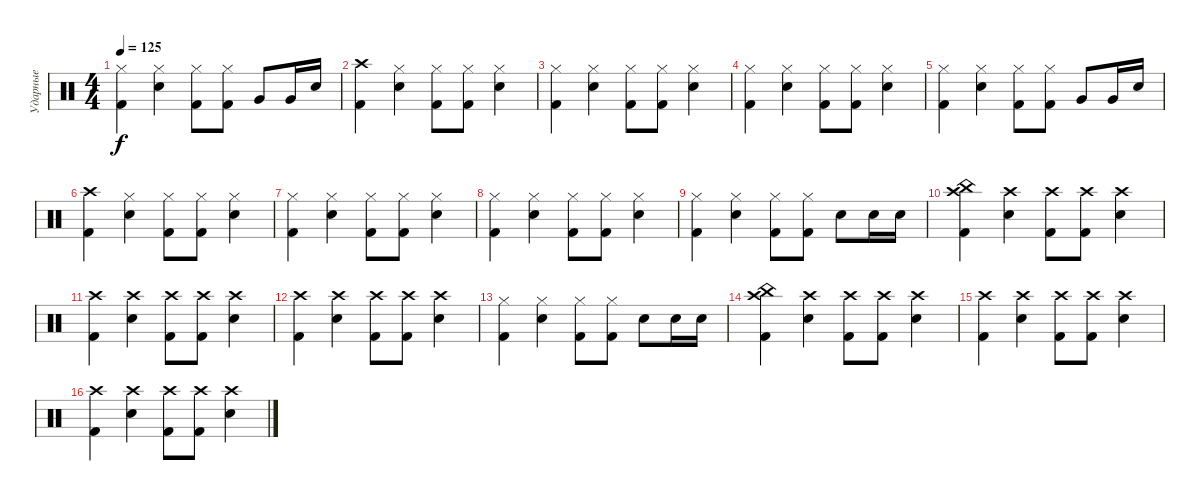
\track ("Ударные" "Ударные") {instrument percussion}
\staff {score}
\articulation defaults
\ts (4 4)
\tempo 125
\clef neutral
\ks c
("Hi-Hat (closed)" "Kick (hit) 2").4{dy f} ("Hi-Hat (closed)" "Snare (hit) 2").4 ("Hi-Hat (closed)" "Kick (hit) 2").8 ("Hi-Hat (closed)" "Kick (hit) 2").8 "Very Low Tom (hit)".8 "Very Low Tom (hit)".16 "Snare (hit) 2".16 |
("Crash high (hit)" "Kick (hit) 2").4 ("Hi-Hat (closed)" "Snare (hit) 2").4 ("Hi-Hat (closed)" "Kick (hit) 2").8 ("Hi-Hat (closed)" "Kick (hit) 2").8 ("Hi-Hat (closed)" "Snare (hit) 2").4 |
("Hi-Hat (closed)" "Kick (hit) 2").4 ("Hi-Hat (closed)" "Snare (hit) 2").4 ("Hi-Hat (closed)" "Kick (hit) 2").8 ("Hi-Hat (closed)" "Kick (hit) 2").8 ("Hi-Hat (closed)" "Snare (hit) 2").4 |
("Hi-Hat (closed)" "Kick (hit) 2").4 ("Hi-Hat (closed)" "Snare (hit) 2").4 ("Hi-Hat (closed)" "Kick (hit) 2").8 ("Hi-Hat (closed)" "Kick (hit) 2").8 ("Hi-Hat (closed)" "Snare (hit) 2").4 |
("Hi-Hat (closed)" "Kick (hit) 2").4 ("Hi-Hat (closed)" "Snare (hit) 2").4 ("Hi-Hat (closed)" "Kick (hit) 2").8 ("Hi-Hat (closed)" "Kick (hit) 2").8 "Very Low Tom (hit)".8 "Very Low Tom (hit)".16 "Snare (hit) 2".16 |
("Crash high (hit)" "Kick (hit) 2").4 ("Hi-Hat (closed)" "Snare (hit) 2").4 ("Hi-Hat (closed)" "Kick (hit) 2").8 ("Hi-Hat (closed)" "Kick (hit) 2").8 ("Hi-Hat (closed)" "Snare (hit) 2").4 |
("Hi-Hat (closed)" "Kick (hit) 2").4 ("Hi-Hat (closed)" "Snare (hit) 2").4 ("Hi-Hat (closed)" "Kick (hit) 2").8 ("Hi-Hat (closed)" "Kick (hit) 2").8 ("Hi-Hat (closed)" "Snare (hit) 2").4 |
("Hi-Hat (closed)" "Kick (hit) 2").4 ("Hi-Hat (closed)" "Snare (hit) 2").4 ("Hi-Hat (closed)" "Kick (hit) 2").8 ("Hi-Hat (closed)" "Kick (hit) 2").8 ("Hi-Hat (closed)" "Snare (hit) 2").4 |
("Hi-Hat (closed)" "Kick (hit) 2").4 ("Hi-Hat (closed)" "Snare (hit) 2").4 ("Hi-Hat (closed)" "Kick (hit) 2").8 ("Hi-Hat (closed)" "Kick (hit) 2").8 "Snare (hit) 2".8 "Snare (hit) 2".16 "Snare (hit) 2".16 |
("China (hit)" "Crash high (hit)" "Kick (hit) 2").4 ("Crash high (hit)" "Snare (hit) 2").4 ("Crash high (hit)" "Kick (hit) 2").8 ("Crash high (hit)" "Kick (hit) 2").8 ("Crash high (hit)" "Snare (hit) 2").4 |
("Crash high (hit)" "Kick (hit) 2").4 ("Crash high (hit)" "Snare (hit) 2").4 ("Crash high (hit)" "Kick (hit) 2").8 ("Crash high (hit)" "Kick (hit) 2").8 ("Crash high (hit)" "Snare (hit) 2").4 |
("Crash high (hit)" "Kick (hit) 2").4 ("Crash high (hit)" "Snare (hit) 2").4 ("Crash high (hit)" "Kick (hit) 2").8 ("Crash high (hit)" "Kick (hit) 2").8 ("Crash high (hit)" "Snare (hit) 2").4 |
("Hi-Hat (closed)" "Kick (hit) 2").4 ("Hi-Hat (closed)" "Snare (hit) 2").4 ("Hi-Hat (closed)" "Kick (hit) 2").8 ("Hi-Hat (closed)" "Kick (hit) 2").8 "Snare (hit) 2".8 "Snare (hit) 2".16 "Snare (hit) 2".16 |
("China (hit)" "Crash high (hit)" "Kick (hit) 2").4 ("Crash high (hit)" "Snare (hit) 2").4 ("Crash high (hit)" "Kick (hit) 2").8 ("Crash high (hit)" "Kick (hit) 2").8 ("Crash high (hit)" "Snare (hit) 2").4 |
("Crash high (hit)" "Kick (hit) 2").4 ("Crash high (hit)" "Snare (hit) 2").4 ("Crash high (hit)" "Kick (hit) 2").8 ("Crash high (hit)" "Kick (hit) 2").8 ("Crash high (hit)" "Snare (hit) 2").4 |
("Crash high (hit)" "Kick (hit) 2").4 ("Crash high (hit)" "Snare (hit) 2").4 ("Crash high (hit)" "Kick (hit) 2").8 ("Crash high (hit)" "Kick (hit) 2").8 ("Crash high (hit)" "Snare (hit) 2").4
